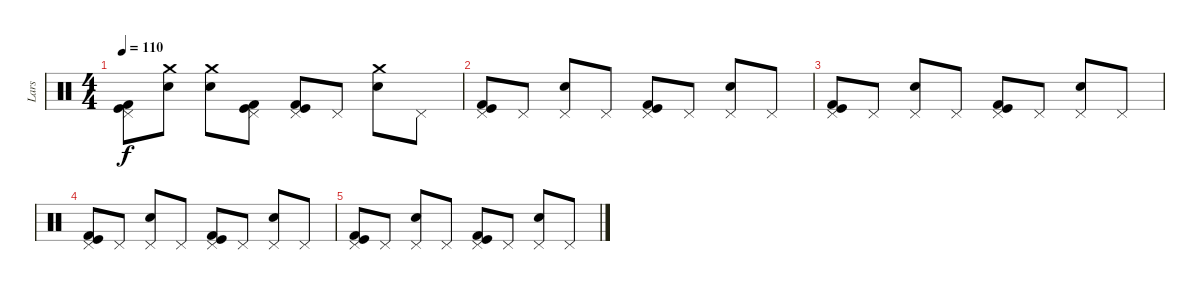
\track ("Lars" "Lars") {instrument percussion}
\staff {score}
\articulation defaults
\ts (4 4)
\tempo 110
\clef neutral
\ks c
("Pedal Hi-Hat (hit)" "Kick (hit)" "Kick (hit) 2").8{dy f} ("Crash medium (hit)" "Electric Snare (hit)").8 ("Crash medium (hit)" "Electric Snare (hit)").8 ("Pedal Hi-Hat (hit)" "Kick (hit)" "Kick (hit) 2").8 ("Pedal Hi-Hat (hit)" "Kick (hit)" "Kick (hit) 2").8 "Pedal Hi-Hat (hit)".8 ("Crash medium (hit)" "Electric Snare (hit)").8 "Pedal Hi-Hat (hit)".8 |
("Pedal Hi-Hat (hit)" "Kick (hit)" "Kick (hit) 2").8 "Pedal Hi-Hat (hit)".8 ("Pedal Hi-Hat (hit)" "Electric Snare (hit)").8 "Pedal Hi-Hat (hit)".8 ("Pedal Hi-Hat (hit)" "Kick (hit)" "Kick (hit) 2").8 "Pedal Hi-Hat (hit)".8 ("Pedal Hi-Hat (hit)" "Electric Snare (hit)").8 "Pedal Hi-Hat (hit)".8 |
("Pedal Hi-Hat (hit)" "Kick (hit)" "Kick (hit) 2").8 "Pedal Hi-Hat (hit)".8 ("Pedal Hi-Hat (hit)" "Electric Snare (hit)").8 "Pedal Hi-Hat (hit)".8 ("Pedal Hi-Hat (hit)" "Kick (hit)" "Kick (hit) 2").8 "Pedal Hi-Hat (hit)".8 ("Pedal Hi-Hat (hit)" "Electric Snare (hit)").8 "Pedal Hi-Hat (hit)".8 |
("Pedal Hi-Hat (hit)" "Kick (hit)" "Kick (hit) 2").8 "Pedal Hi-Hat (hit)".8 ("Pedal Hi-Hat (hit)" "Electric Snare (hit)").8 "Pedal Hi-Hat (hit)".8 ("Pedal Hi-Hat (hit)" "Kick (hit)" "Kick (hit) 2").8 "Pedal Hi-Hat (hit)".8 ("Pedal Hi-Hat (hit)" "Electric Snare (hit)").8 "Pedal Hi-Hat (hit)".8 |
("Pedal Hi-Hat (hit)" "Kick (hit)" "Kick (hit) 2").8 "Pedal Hi-Hat (hit)".8 ("Pedal Hi-Hat (hit)" "Electric Snare (hit)").8 "Pedal Hi-Hat (hit)".8 ("Pedal Hi-Hat (hit)" "Kick (hit)" "Kick (hit) 2").8 "Pedal Hi-Hat (hit)".8 ("Pedal Hi-Hat (hit)" "Electric Snare (hit)").8 "Pedal Hi-Hat (hit)".8
